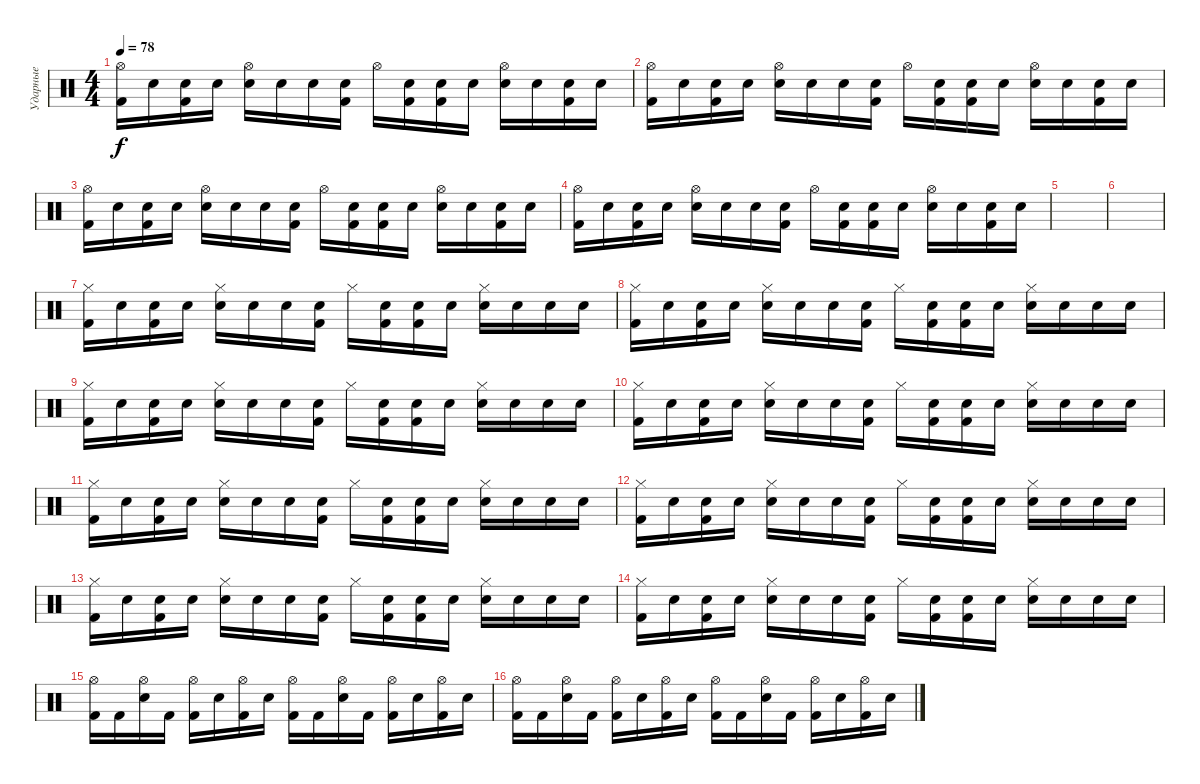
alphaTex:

\track ("Ударные" "Ударные") {instrument percussion}
\staff {score}
\articulation defaults
\ts (4 4)
\tempo 78
\clef neutral
\ks c
("Hi-Hat (open)" "Kick (hit) 2").16{dy f} "Snare (hit)".16 ("Snare (hit)" "Kick (hit) 2").16 "Snare (hit)".16 ("Hi-Hat (open)" "Electric Snare (hit)").16 "Snare (hit)".16 "Snare (hit)".16 ("Snare (hit)" "Kick (hit) 2").16 "Hi-Hat (open)".16 ("Snare (hit)" "Kick (hit) 2").16 ("Snare (hit)" "Kick (hit) 2").16 "Snare (hit)".16 ("Hi-Hat (open)" "Electric Snare (hit)").16 "Snare (hit)".16 ("Snare (hit)" "Kick (hit) 2").16 "Snare (hit)".16 |
("Hi-Hat (open)" "Kick (hit) 2").16 "Snare (hit)".16 ("Snare (hit)" "Kick (hit) 2").16 "Snare (hit)".16 ("Hi-Hat (open)" "Electric Snare (hit)").16 "Snare (hit)".16 "Snare (hit)".16 ("Snare (hit)" "Kick (hit) 2").16 "Hi-Hat (open)".16 ("Snare (hit)" "Kick (hit) 2").16 ("Snare (hit)" "Kick (hit) 2").16 "Snare (hit)".16 ("Hi-Hat (open)" "Electric Snare (hit)").16 "Snare (hit)".16 ("Snare (hit)" "Kick (hit) 2").16 "Snare (hit)".16 |
("Hi-Hat (open)" "Kick (hit) 2").16 "Snare (hit)".16 ("Snare (hit)" "Kick (hit) 2").16 "Snare (hit)".16 ("Hi-Hat (open)" "Electric Snare (hit)").16 "Snare (hit)".16 "Snare (hit)".16 ("Snare (hit)" "Kick (hit) 2").16 "Hi-Hat (open)".16 ("Snare (hit)" "Kick (hit) 2").16 ("Snare (hit)" "Kick (hit) 2").16 "Snare (hit)".16 ("Hi-Hat (open)" "Electric Snare (hit)").16 "Snare (hit)".16 ("Snare (hit)" "Kick (hit) 2").16 "Snare (hit)".16 |
("Hi-Hat (open)" "Kick (hit) 2").16 "Snare (hit)".16 ("Snare (hit)" "Kick (hit) 2").16 "Snare (hit)".16 ("Hi-Hat (open)" "Electric Snare (hit)").16 "Snare (hit)".16 "Snare (hit)".16 ("Snare (hit)" "Kick (hit) 2").16 "Hi-Hat (open)".16 ("Snare (hit)" "Kick (hit) 2").16 ("Snare (hit)" "Kick (hit) 2").16 "Snare (hit)".16 ("Hi-Hat (open)" "Electric Snare (hit)").16 "Snare (hit)".16 ("Snare (hit)" "Kick (hit) 2").16 "Snare (hit)".16 |
|
|
("Hi-Hat (closed)" "Kick (hit) 2").16 "Snare (hit)".16 ("Snare (hit)" "Kick (hit) 2").16 "Snare (hit)".16 ("Hi-Hat (closed)" "Electric Snare (hit)").16 "Snare (hit)".16 "Snare (hit)".16 ("Snare (hit)" "Kick (hit) 2").16 "Hi-Hat (closed)".16 ("Snare (hit)" "Kick (hit) 2").16 ("Snare (hit)" "Kick (hit) 2").16 "Snare (hit)".16 ("Hi-Hat (closed)" "Electric Snare (hit)").16 "Snare (hit)".16 "Snare (hit)".16 "Snare (hit)".16 |
("Hi-Hat (closed)" "Kick (hit) 2").16 "Snare (hit)".16 ("Snare (hit)" "Kick (hit) 2").16 "Snare (hit)".16 ("Hi-Hat (closed)" "Electric Snare (hit)").16 "Snare (hit)".16 "Snare (hit)".16 ("Snare (hit)" "Kick (hit) 2").16 "Hi-Hat (closed)".16 ("Snare (hit)" "Kick (hit) 2").16 ("Snare (hit)" "Kick (hit) 2").16 "Snare (hit)".16 ("Hi-Hat (closed)" "Electric Snare (hit)").16 "Snare (hit)".16 "Snare (hit)".16 "Snare (hit)".16 |
("Hi-Hat (closed)" "Kick (hit) 2").16 "Snare (hit)".16 ("Snare (hit)" "Kick (hit) 2").16 "Snare (hit)".16 ("Hi-Hat (closed)" "Electric Snare (hit)").16 "Snare (hit)".16 "Snare (hit)".16 ("Snare (hit)" "Kick (hit) 2").16 "Hi-Hat (closed)".16 ("Snare (hit)" "Kick (hit) 2").16 ("Snare (hit)" "Kick (hit) 2").16 "Snare (hit)".16 ("Hi-Hat (closed)" "Electric Snare (hit)").16 "Snare (hit)".16 "Snare (hit)".16 "Snare (hit)".16 |
("Hi-Hat (closed)" "Kick (hit) 2").16 "Snare (hit)".16 ("Snare (hit)" "Kick (hit) 2").16 "Snare (hit)".16 ("Hi-Hat (closed)" "Electric Snare (hit)").16 "Snare (hit)".16 "Snare (hit)".16 ("Snare (hit)" "Kick (hit) 2").16 "Hi-Hat (closed)".16 ("Snare (hit)" "Kick (hit) 2").16 ("Snare (hit)" "Kick (hit) 2").16 "Snare (hit)".16 ("Hi-Hat (closed)" "Electric Snare (hit)").16 "Snare (hit)".16 "Snare (hit)".16 "Snare (hit)".16 |
("Hi-Hat (closed)" "Kick (hit) 2").16 "Snare (hit)".16 ("Snare (hit)" "Kick (hit) 2").16 "Snare (hit)".16 ("Hi-Hat (closed)" "Electric Snare (hit)").16 "Snare (hit)".16 "Snare (hit)".16 ("Snare (hit)" "Kick (hit) 2").16 "Hi-Hat (closed)".16 ("Snare (hit)" "Kick (hit) 2").16 ("Snare (hit)" "Kick (hit) 2").16 "Snare (hit)".16 ("Hi-Hat (closed)" "Electric Snare (hit)").16 "Snare (hit)".16 "Snare (hit)".16 "Snare (hit)".16 |
("Hi-Hat (closed)" "Kick (hit) 2").16 "Snare (hit)".16 ("Snare (hit)" "Kick (hit) 2").16 "Snare (hit)".16 ("Hi-Hat (closed)" "Electric Snare (hit)").16 "Snare (hit)".16 "Snare (hit)".16 ("Snare (hit)" "Kick (hit) 2").16 "Hi-Hat (closed)".16 ("Snare (hit)" "Kick (hit) 2").16 ("Snare (hit)" "Kick (hit) 2").16 "Snare (hit)".16 ("Hi-Hat (closed)" "Electric Snare (hit)").16 "Snare (hit)".16 "Snare (hit)".16 "Snare (hit)".16 |
("Hi-Hat (closed)" "Kick (hit) 2").16 "Snare (hit)".16 ("Snare (hit)" "Kick (hit) 2").16 "Snare (hit)".16 ("Hi-Hat (closed)" "Electric Snare (hit)").16 "Snare (hit)".16 "Snare (hit)".16 ("Snare (hit)" "Kick (hit) 2").16 "Hi-Hat (closed)".16 ("Snare (hit)" "Kick (hit) 2").16 ("Snare (hit)" "Kick (hit) 2").16 "Snare (hit)".16 ("Hi-Hat (closed)" "Electric Snare (hit)").16 "Snare (hit)".16 "Snare (hit)".16 "Snare (hit)".16 |
("Hi-Hat (closed)" "Kick (hit) 2").16 "Snare (hit)".16 ("Snare (hit)" "Kick (hit) 2").16 "Snare (hit)".16 ("Hi-Hat (closed)" "Electric Snare (hit)").16 "Snare (hit)".16 "Snare (hit)".16 ("Snare (hit)" "Kick (hit) 2").16 "Hi-Hat (closed)".16 ("Snare (hit)" "Kick (hit) 2").16 ("Snare (hit)" "Kick (hit) 2").16 "Snare (hit)".16 ("Hi-Hat (closed)" "Electric Snare (hit)").16 "Snare (hit)".16 "Snare (hit)".16 "Snare (hit)".16 |
("Hi-Hat (open)" "Kick (hit) 2").16 "Kick (hit) 2".16 ("Hi-Hat (open)" "Electric Snare (hit)").16 "Kick (hit) 2".16 ("Hi-Hat (open)" "Kick (hit) 2").16 "Electric Snare (hit)".16 ("Hi-Hat (open)" "Kick (hit) 2").16 "Electric Snare (hit)".16 ("Hi-Hat (open)" "Kick (hit) 2").16 "Kick (hit) 2".16 ("Hi-Hat (open)" "Electric Snare (hit)").16 "Kick (hit) 2".16 ("Hi-Hat (open)" "Kick (hit) 2").16 "Electric Snare (hit)".16 ("Hi-Hat (open)" "Kick (hit) 2").16 "Electric Snare (hit)".16 |
("Hi-Hat (open)" "Kick (hit) 2").16 "Kick (hit) 2".16 ("Hi-Hat (open)" "Electric Snare (hit)").16 "Kick (hit) 2".16 ("Hi-Hat (open)" "Kick (hit) 2").16 "Electric Snare (hit)".16 ("Hi-Hat (open)" "Kick (hit) 2").16 "Electric Snare (hit)".16 ("Hi-Hat (open)" "Kick (hit) 2").16 "Kick (hit) 2".16 ("Hi-Hat (open)" "Electric Snare (hit)").16 "Kick (hit) 2".16 ("Hi-Hat (open)" "Kick (hit) 2").16 "Electric Snare (hit)".16 ("Hi-Hat (open)" "Kick (hit) 2").16 "Electric Snare (hit)".16
